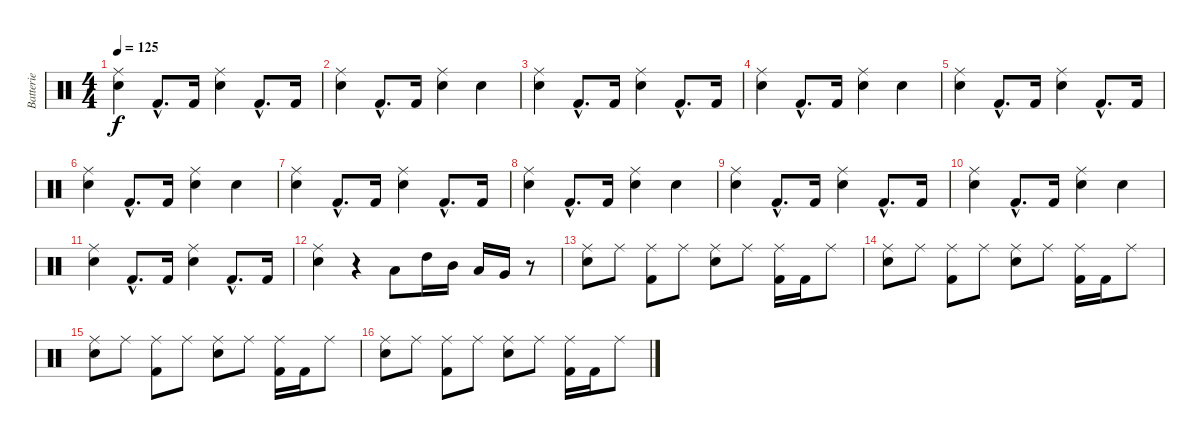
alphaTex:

\track ("Batterie" "Batterie") {instrument percussion}
\staff {score}
\articulation defaults
\ts (4 4)
\section ("" "")
\tempo 125
\clef neutral
\ks c
("Snare (hit) 2" "Ride (middle)").4{dy f} "Kick (hit) 2"{hac}.8{d} "Kick (hit) 2".16 ("Snare (hit) 2" "Ride (middle)").4 "Kick (hit) 2"{hac}.8{d} "Kick (hit) 2".16 |
("Snare (hit) 2" "Ride (middle)").4 "Kick (hit) 2"{hac}.8{d} "Kick (hit) 2".16 ("Snare (hit) 2" "Ride (middle)").4 "Snare (hit) 2".4 |
("Snare (hit) 2" "Ride (middle)").4 "Kick (hit) 2"{hac}.8{d} "Kick (hit) 2".16 ("Snare (hit) 2" "Ride (middle)").4 "Kick (hit) 2"{hac}.8{d} "Kick (hit) 2".16 |
("Snare (hit) 2" "Ride (middle)").4 "Kick (hit) 2"{hac}.8{d} "Kick (hit) 2".16 ("Snare (hit) 2" "Ride (middle)").4 "Snare (hit) 2".4 |
\section ("" "")
("Snare (hit) 2" "Ride (middle)").4 "Kick (hit) 2"{hac}.8{d} "Kick (hit) 2".16 ("Snare (hit) 2" "Ride (middle)").4 "Kick (hit) 2"{hac}.8{d} "Kick (hit) 2".16 |
("Snare (hit) 2" "Ride (middle)").4 "Kick (hit) 2"{hac}.8{d} "Kick (hit) 2".16 ("Snare (hit) 2" "Ride (middle)").4 "Snare (hit) 2".4 |
("Snare (hit) 2" "Ride (middle)").4 "Kick (hit) 2"{hac}.8{d} "Kick (hit) 2".16 ("Snare (hit) 2" "Ride (middle)").4 "Kick (hit) 2"{hac}.8{d} "Kick (hit) 2".16 |
("Snare (hit) 2" "Ride (middle)").4 "Kick (hit) 2"{hac}.8{d} "Kick (hit) 2".16 ("Snare (hit) 2" "Ride (middle)").4 "Snare (hit) 2".4 |
("Snare (hit) 2" "Ride (middle)").4 "Kick (hit) 2"{hac}.8{d} "Kick (hit) 2".16 ("Snare (hit) 2" "Ride (middle)").4 "Kick (hit) 2"{hac}.8{d} "Kick (hit) 2".16 |
("Snare (hit) 2" "Ride (middle)").4 "Kick (hit) 2"{hac}.8{d} "Kick (hit) 2".16 ("Snare (hit) 2" "Ride (middle)").4 "Snare (hit) 2".4 |
("Snare (hit) 2" "Ride (middle)").4 "Kick (hit) 2"{hac}.8{d} "Kick (hit) 2".16 ("Snare (hit) 2" "Ride (middle)").4 "Kick (hit) 2"{hac}.8{d} "Kick (hit) 2".16 |
("Snare (hit) 2" "Ride (middle)").4 r.4 "Low Tom (hit)".8 "High Tom (hit)".16 "Mid Tom (hit)".16 "Low Tom (hit)".16 "Very Low Tom (hit)".16 r.8 |
\section ("" "")
("Ride (middle)" "Snare (hit) 2").8 "Ride (middle)".8 ("Ride (middle)" "Kick (hit) 2").8 "Ride (middle)".8 ("Ride (middle)" "Snare (hit) 2").8 "Ride (middle)".8 ("Ride (middle)" "Kick (hit) 2").16 "Kick (hit) 2".16 "Ride (middle)".8 |
("Ride (middle)" "Snare (hit) 2").8 "Ride (middle)".8 ("Ride (middle)" "Kick (hit) 2").8 "Ride (middle)".8 ("Ride (middle)" "Snare (hit) 2").8 "Ride (middle)".8 ("Ride (middle)" "Kick (hit) 2").16 "Kick (hit) 2".16 "Ride (middle)".8 |
("Ride (middle)" "Snare (hit) 2").8 "Ride (middle)".8 ("Ride (middle)" "Kick (hit) 2").8 "Ride (middle)".8 ("Ride (middle)" "Snare (hit) 2").8 "Ride (middle)".8 ("Ride (middle)" "Kick (hit) 2").16 "Kick (hit) 2".16 "Ride (middle)".8 |
("Ride (middle)" "Snare (hit) 2").8 "Ride (middle)".8 ("Ride (middle)" "Kick (hit) 2").8 "Ride (middle)".8 ("Ride (middle)" "Snare (hit) 2").8 "Ride (middle)".8 ("Ride (middle)" "Kick (hit) 2").16 "Kick (hit) 2".16 "Ride (middle)".8
